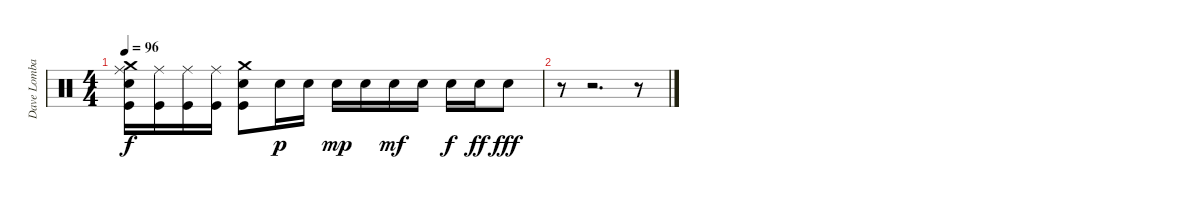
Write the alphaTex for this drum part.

\track ("Dave Lombardo (Drum)" "Dave Lomba") {instrument percussion}
\staff {score}
\articulation defaults
\ts (4 4)
\tempo 96
\clef neutral
\ks c
("Crash medium (hit)" "Snare (hit) 2" "Ride (middle)" "Kick (hit)").16{dy f} ("Ride (middle)" "Kick (hit)").16 ("Ride (middle)" "Kick (hit)").16 ("Ride (middle)" "Kick (hit)").16 ("Snare (hit) 2" "Crash medium (hit)" "Kick (hit)").8 "Snare (hit) 2".16{dy p} "Snare (hit) 2".16 "Snare (hit) 2".16{dy mp} "Snare (hit) 2".16 "Snare (hit) 2".16{dy mf} "Snare (hit) 2".16 "Snare (hit) 2".16{dy f} "Snare (hit) 2".16{dy ff} "Snare (hit) 2".8{dy fff} |
r.8 r.2{d} r.8
